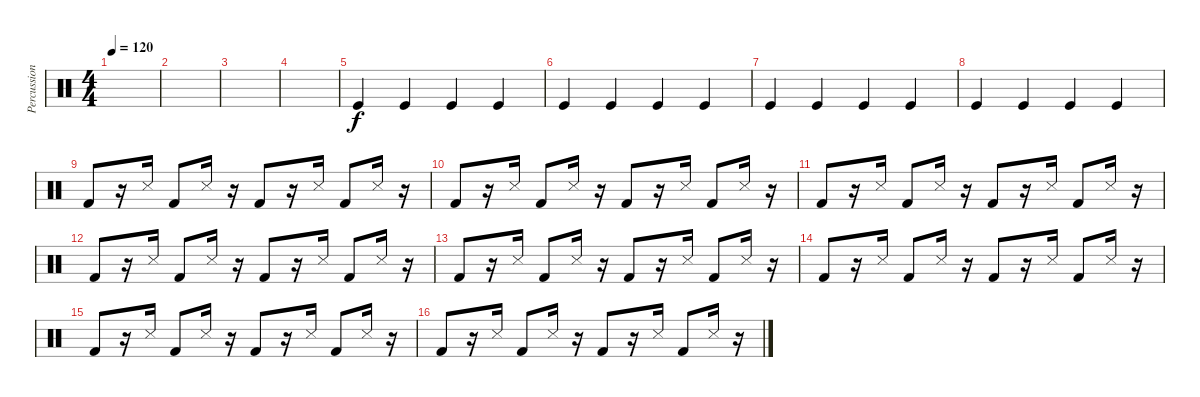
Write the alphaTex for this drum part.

\track ("Percussion" "Percussion") {instrument percussion}
\staff {score}
\articulation defaults
\ts (4 4)
\tempo 120
\clef neutral
\ks c
|
|
|
|
"Kick (hit)".4 "Kick (hit)".4 "Kick (hit)".4 "Kick (hit)".4 |
"Kick (hit)".4 "Kick (hit)".4 "Kick (hit)".4 "Kick (hit)".4 |
"Kick (hit)".4 "Kick (hit)".4 "Kick (hit)".4 "Kick (hit)".4 |
"Kick (hit)".4 "Kick (hit)".4 "Kick (hit)".4 "Kick (hit)".4 |
"Kick (hit) 2".8 r.16 "Snare (side stick) 3".16 "Kick (hit) 2".8 "Snare (side stick) 3".16 r.16 "Kick (hit) 2".8 r.16 "Snare (side stick) 3".16 "Kick (hit) 2".8 "Snare (side stick) 3".16 r.16 |
"Kick (hit) 2".8 r.16 "Snare (side stick) 3".16 "Kick (hit) 2".8 "Snare (side stick) 3".16 r.16 "Kick (hit) 2".8 r.16 "Snare (side stick) 3".16 "Kick (hit) 2".8 "Snare (side stick) 3".16 r.16 |
"Kick (hit) 2".8 r.16 "Snare (side stick) 3".16 "Kick (hit) 2".8 "Snare (side stick) 3".16 r.16 "Kick (hit) 2".8 r.16 "Snare (side stick) 3".16 "Kick (hit) 2".8 "Snare (side stick) 3".16 r.16 |
"Kick (hit) 2".8 r.16 "Snare (side stick) 3".16 "Kick (hit) 2".8 "Snare (side stick) 3".16 r.16 "Kick (hit) 2".8 r.16 "Snare (side stick) 3".16 "Kick (hit) 2".8 "Snare (side stick) 3".16 r.16 |
"Kick (hit) 2".8 r.16 "Snare (side stick) 3".16 "Kick (hit) 2".8 "Snare (side stick) 3".16 r.16 "Kick (hit) 2".8 r.16 "Snare (side stick) 3".16 "Kick (hit) 2".8 "Snare (side stick) 3".16 r.16 |
"Kick (hit) 2".8 r.16 "Snare (side stick) 3".16 "Kick (hit) 2".8 "Snare (side stick) 3".16 r.16 "Kick (hit) 2".8 r.16 "Snare (side stick) 3".16 "Kick (hit) 2".8 "Snare (side stick) 3".16 r.16 |
"Kick (hit) 2".8 r.16 "Snare (side stick) 3".16 "Kick (hit) 2".8 "Snare (side stick) 3".16 r.16 "Kick (hit) 2".8 r.16 "Snare (side stick) 3".16 "Kick (hit) 2".8 "Snare (side stick) 3".16 r.16 |
"Kick (hit) 2".8 r.16 "Snare (side stick) 3".16 "Kick (hit) 2".8 "Snare (side stick) 3".16 r.16 "Kick (hit) 2".8 r.16 "Snare (side stick) 3".16 "Kick (hit) 2".8 "Snare (side stick) 3".16 r.16
